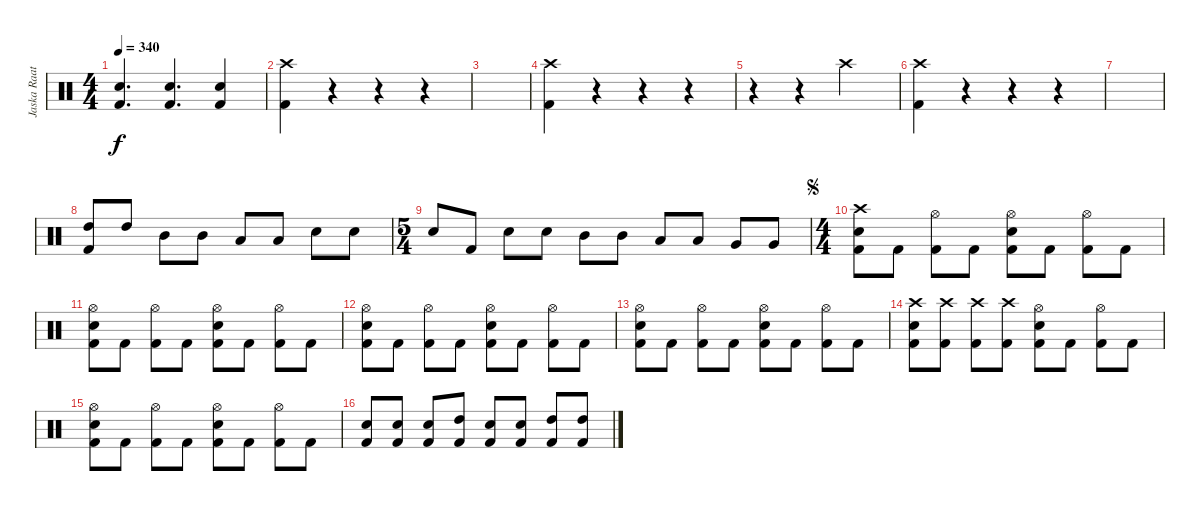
\track ("Jaska Raatkinen" "Jaska Raat") {instrument percussion}
\staff {score}
\articulation defaults
\ts (4 4)
\tempo 340
\clef neutral
\ks c
("Snare (hit) 2" "Kick (hit) 2").4{d dy f} ("Snare (hit) 2" "Kick (hit) 2").4{d} ("Snare (hit) 2" "Kick (hit) 2").4 |
("Crash high (hit)" "Kick (hit) 2").4 r.4 r.4 r.4 |
|
("Crash high (hit)" "Kick (hit) 2").4 r.4 r.4 r.4 |
r.4 r.4 "Crash high (hit)".2 |
("Crash high (hit)" "Kick (hit) 2").4 r.4 r.4 r.4 |
|
("High Tom (hit)" "Kick (hit) 2").8 "High Tom (hit)".8 "Mid Tom (hit)".8 "Mid Tom (hit)".8 "Low Tom (hit)".8 "Low Tom (hit)".8 "Snare (hit) 2".8 "Snare (hit) 2".8 |
\ts (5 4)
"Snare (hit) 2".8 "Kick (hit) 2".8 "Snare (hit) 2".8 "Snare (hit) 2".8 "Mid Tom (hit)".8 "Mid Tom (hit)".8 "Low Tom (hit)".8 "Low Tom (hit)".8 "Very Low Tom (hit)".8 "Very Low Tom (hit)".8 |
\ts (4 4)
\jump segno
("Crash high (hit)" "Snare (hit) 2" "Kick (hit) 2").8 "Kick (hit) 2".8 ("Hi-Hat (open)" "Kick (hit) 2").8 "Kick (hit) 2".8 ("Hi-Hat (open)" "Snare (hit) 2" "Kick (hit) 2").8 "Kick (hit) 2".8 ("Hi-Hat (open)" "Kick (hit) 2").8 "Kick (hit) 2".8 |
("Hi-Hat (open)" "Snare (hit) 2" "Kick (hit) 2").8 "Kick (hit) 2".8 ("Hi-Hat (open)" "Kick (hit) 2").8 "Kick (hit) 2".8 ("Hi-Hat (open)" "Snare (hit) 2" "Kick (hit) 2").8 "Kick (hit) 2".8 ("Hi-Hat (open)" "Kick (hit) 2").8 "Kick (hit) 2".8 |
("Hi-Hat (open)" "Snare (hit) 2" "Kick (hit) 2").8 "Kick (hit) 2".8 ("Hi-Hat (open)" "Kick (hit) 2").8 "Kick (hit) 2".8 ("Hi-Hat (open)" "Snare (hit) 2" "Kick (hit) 2").8 "Kick (hit) 2".8 ("Hi-Hat (open)" "Kick (hit) 2").8 "Kick (hit) 2".8 |
("Hi-Hat (open)" "Snare (hit) 2" "Kick (hit) 2").8 "Kick (hit) 2".8 ("Hi-Hat (open)" "Kick (hit) 2").8 "Kick (hit) 2".8 ("Hi-Hat (open)" "Snare (hit) 2" "Kick (hit) 2").8 "Kick (hit) 2".8 ("Hi-Hat (open)" "Kick (hit) 2").8 "Kick (hit) 2".8 |
("Crash high (hit)" "Snare (hit) 2" "Kick (hit) 2").8 ("Crash high (hit)" "Kick (hit) 2").8 ("Crash high (hit)" "Kick (hit) 2").8 ("Crash high (hit)" "Kick (hit) 2").8 ("Hi-Hat (open)" "Snare (hit) 2" "Kick (hit) 2").8 "Kick (hit) 2".8 ("Hi-Hat (open)" "Kick (hit) 2").8 "Kick (hit) 2".8 |
("Hi-Hat (open)" "Snare (hit) 2" "Kick (hit) 2").8 "Kick (hit) 2".8 ("Hi-Hat (open)" "Kick (hit) 2").8 "Kick (hit) 2".8 ("Hi-Hat (open)" "Snare (hit) 2" "Kick (hit) 2").8 "Kick (hit) 2".8 ("Hi-Hat (open)" "Kick (hit) 2").8 "Kick (hit) 2".8 |
("Snare (hit) 2" "Kick (hit) 2").8 ("Snare (hit) 2" "Kick (hit) 2").8 ("Snare (hit) 2" "Kick (hit) 2").8 ("High Tom (hit)" "Kick (hit) 2").8 ("Snare (hit) 2" "Kick (hit) 2").8 ("Snare (hit) 2" "Kick (hit) 2").8 ("High Tom (hit)" "Kick (hit) 2").8 ("High Tom (hit)" "Kick (hit) 2").8
